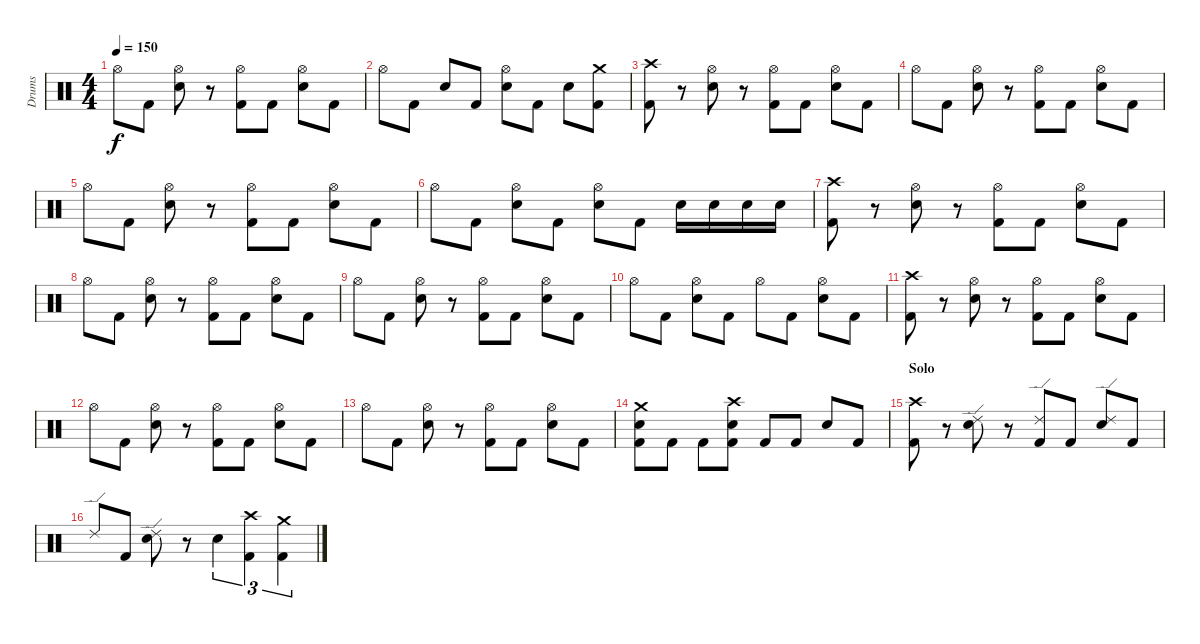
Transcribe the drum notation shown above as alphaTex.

\track ("Drums" "Drums") {instrument percussion}
\staff {score}
\articulation defaults
\ts (4 4)
\tempo 150
\clef neutral
\ks c "Hi-Hat (open)".8{dy f} "Kick (hit) 2".8
("Hi-Hat (open)" "Snare (hit) 2").8 r.8 ("Hi-Hat (open)" "Kick (hit) 2").8 "Kick (hit) 2".8 ("Hi-Hat (open)" "Snare (hit) 2").8 "Kick (hit) 2".8 |
"Hi-Hat (open)".8 "Kick (hit) 2".8 "Snare (hit) 2".8 "Kick (hit) 2".8 ("Hi-Hat (open)" "Snare (hit) 2").8 "Kick (hit) 2".8 "Snare (hit) 2".8 ("Crash medium (hit)" "Kick (hit) 2").8 |
("Crash high (hit)" "Kick (hit) 2").8 r.8 ("Hi-Hat (open)" "Snare (hit) 2").8 r.8 ("Hi-Hat (open)" "Kick (hit) 2").8 "Kick (hit) 2".8 ("Hi-Hat (open)" "Snare (hit) 2").8 "Kick (hit) 2".8 |
"Hi-Hat (open)".8 "Kick (hit) 2".8 ("Hi-Hat (open)" "Snare (hit) 2").8 r.8 ("Hi-Hat (open)" "Kick (hit) 2").8 "Kick (hit) 2".8 ("Hi-Hat (open)" "Snare (hit) 2").8 "Kick (hit) 2".8 |
"Hi-Hat (open)".8 "Kick (hit) 2".8 ("Hi-Hat (open)" "Snare (hit) 2").8 r.8 ("Hi-Hat (open)" "Kick (hit) 2").8 "Kick (hit) 2".8 ("Hi-Hat (open)" "Snare (hit) 2").8 "Kick (hit) 2".8 |
"Hi-Hat (open)".8 "Kick (hit) 2".8 ("Hi-Hat (open)" "Snare (hit) 2").8 "Kick (hit) 2".8 ("Hi-Hat (open)" "Snare (hit) 2").8 "Kick (hit) 2".8 "Snare (hit) 2".16 "Snare (hit) 2".16 "Snare (hit) 2".16 "Snare (hit) 2".16 |
("Crash high (hit)" "Kick (hit) 2").8 r.8 ("Hi-Hat (open)" "Snare (hit) 2").8 r.8 ("Hi-Hat (open)" "Kick (hit) 2").8 "Kick (hit) 2".8 ("Hi-Hat (open)" "Snare (hit) 2").8 "Kick (hit) 2".8 |
"Hi-Hat (open)".8 "Kick (hit) 2".8 ("Hi-Hat (open)" "Snare (hit) 2").8 r.8 ("Hi-Hat (open)" "Kick (hit) 2").8 "Kick (hit) 2".8 ("Hi-Hat (open)" "Snare (hit) 2").8 "Kick (hit) 2".8 |
"Hi-Hat (open)".8 "Kick (hit) 2".8 ("Hi-Hat (open)" "Snare (hit) 2").8 r.8 ("Hi-Hat (open)" "Kick (hit) 2").8 "Kick (hit) 2".8 ("Hi-Hat (open)" "Snare (hit) 2").8 "Kick (hit) 2".8 |
"Hi-Hat (open)".8 "Kick (hit) 2".8 ("Hi-Hat (open)" "Snare (hit) 2").8 "Kick (hit) 2".8 "Hi-Hat (open)".8 "Kick (hit) 2".8 ("Hi-Hat (open)" "Snare (hit) 2").8 "Kick (hit) 2".8 |
("Crash high (hit)" "Kick (hit) 2").8 r.8 ("Hi-Hat (open)" "Snare (hit) 2").8 r.8 ("Hi-Hat (open)" "Kick (hit) 2").8 "Kick (hit) 2".8 ("Hi-Hat (open)" "Snare (hit) 2").8 "Kick (hit) 2".8 |
"Hi-Hat (open)".8 "Kick (hit) 2".8 ("Hi-Hat (open)" "Snare (hit) 2").8 r.8 ("Hi-Hat (open)" "Kick (hit) 2").8 "Kick (hit) 2".8 ("Hi-Hat (open)" "Snare (hit) 2").8 "Kick (hit) 2".8 |
"Hi-Hat (open)".8 "Kick (hit) 2".8 ("Hi-Hat (open)" "Snare (hit) 2").8 r.8 ("Hi-Hat (open)" "Kick (hit) 2").8 "Kick (hit) 2".8 ("Hi-Hat (open)" "Snare (hit) 2").8 "Kick (hit) 2".8 |
("Crash medium (hit)" "Snare (hit) 2" "Kick (hit) 2").8 "Kick (hit) 2".8 "Kick (hit) 2".8 ("Crash high (hit)" "Snare (hit) 2" "Kick (hit) 2").8 "Kick (hit) 2".8 "Kick (hit) 2".8 "Snare (hit) 2".8 "Kick (hit) 2".8 |
\section ("" "Solo")
("Crash high (hit)" "Kick (hit) 2").8 r.8 ("Ride (edge) 2" "Snare (hit) 2").8 r.8 ("Ride (edge) 2" "Kick (hit) 2").8 "Kick (hit) 2".8 ("Ride (edge) 2" "Snare (hit) 2").8 "Kick (hit) 2".8 |
"Ride (edge) 2".8 "Kick (hit) 2".8 ("Ride (edge) 2" "Snare (hit) 2").8 r.8 "Snare (hit) 2".4{tu (3 2)} ("Crash high (hit)" "Kick (hit) 2").4{tu (3 2)} ("Crash medium (hit)" "Kick (hit) 2").4{tu (3 2)}
